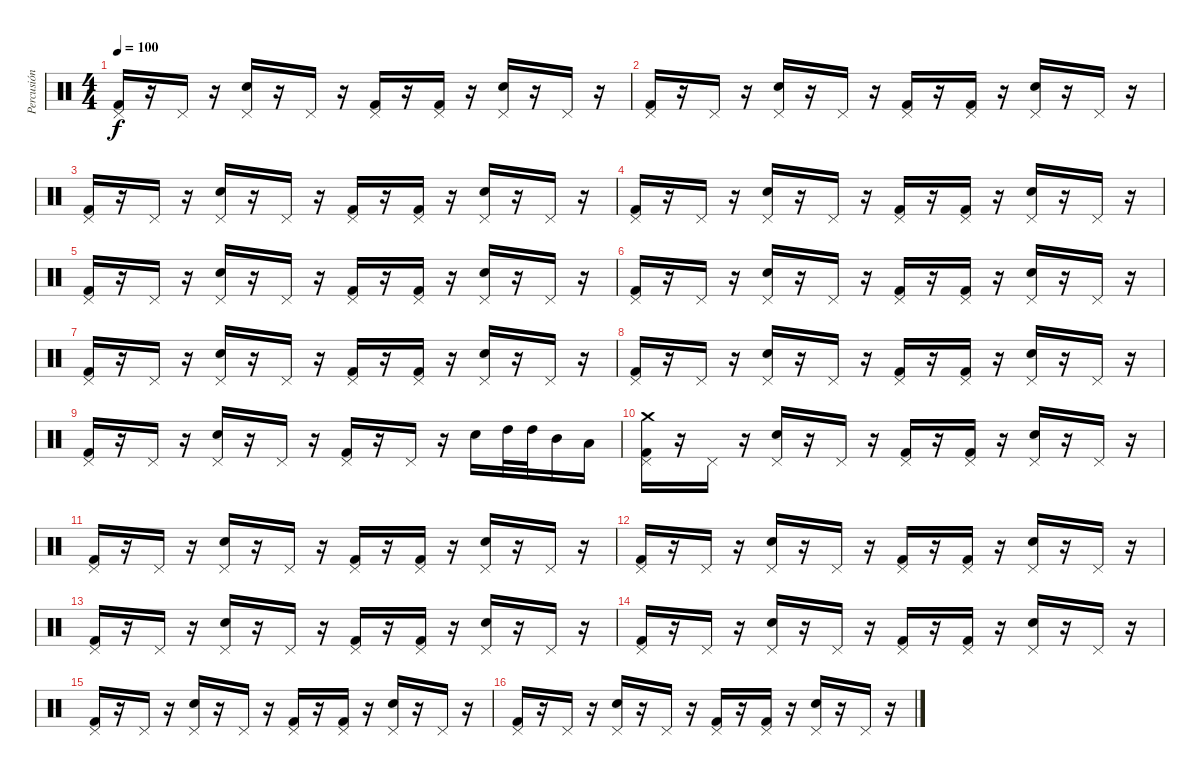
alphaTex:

\track ("Percusión" "Percusión") {instrument percussion}
\staff {score}
\articulation defaults
\ts (4 4)
\tempo 100
\clef neutral
\ks c
("Pedal Hi-Hat (hit)" "Kick (hit) 2").16{dy f} r.16 "Pedal Hi-Hat (hit)".16 r.16 ("Pedal Hi-Hat (hit)" "Snare (hit) 2").16 r.16 "Pedal Hi-Hat (hit)".16 r.16 ("Pedal Hi-Hat (hit)" "Kick (hit) 2").16 r.16 ("Pedal Hi-Hat (hit)" "Kick (hit) 2").16 r.16 ("Pedal Hi-Hat (hit)" "Snare (hit) 2").16 r.16 "Pedal Hi-Hat (hit)".16 r.16 |
("Pedal Hi-Hat (hit)" "Kick (hit) 2").16 r.16 "Pedal Hi-Hat (hit)".16 r.16 ("Pedal Hi-Hat (hit)" "Snare (hit) 2").16 r.16 "Pedal Hi-Hat (hit)".16 r.16 ("Pedal Hi-Hat (hit)" "Kick (hit) 2").16 r.16 ("Pedal Hi-Hat (hit)" "Kick (hit) 2").16 r.16 ("Pedal Hi-Hat (hit)" "Snare (hit) 2").16 r.16 "Pedal Hi-Hat (hit)".16 r.16 |
("Pedal Hi-Hat (hit)" "Kick (hit) 2").16 r.16 "Pedal Hi-Hat (hit)".16 r.16 ("Pedal Hi-Hat (hit)" "Snare (hit) 2").16 r.16 "Pedal Hi-Hat (hit)".16 r.16 ("Pedal Hi-Hat (hit)" "Kick (hit) 2").16 r.16 ("Pedal Hi-Hat (hit)" "Kick (hit) 2").16 r.16 ("Pedal Hi-Hat (hit)" "Snare (hit) 2").16 r.16 "Pedal Hi-Hat (hit)".16 r.16 |
("Pedal Hi-Hat (hit)" "Kick (hit) 2").16 r.16 "Pedal Hi-Hat (hit)".16 r.16 ("Pedal Hi-Hat (hit)" "Snare (hit) 2").16 r.16 "Pedal Hi-Hat (hit)".16 r.16 ("Pedal Hi-Hat (hit)" "Kick (hit) 2").16 r.16 ("Pedal Hi-Hat (hit)" "Kick (hit) 2").16 r.16 ("Pedal Hi-Hat (hit)" "Snare (hit) 2").16 r.16 "Pedal Hi-Hat (hit)".16 r.16 |
("Pedal Hi-Hat (hit)" "Kick (hit) 2").16 r.16 "Pedal Hi-Hat (hit)".16 r.16 ("Pedal Hi-Hat (hit)" "Snare (hit) 2").16 r.16 "Pedal Hi-Hat (hit)".16 r.16 ("Pedal Hi-Hat (hit)" "Kick (hit) 2").16 r.16 ("Pedal Hi-Hat (hit)" "Kick (hit) 2").16 r.16 ("Pedal Hi-Hat (hit)" "Snare (hit) 2").16 r.16 "Pedal Hi-Hat (hit)".16 r.16 |
("Pedal Hi-Hat (hit)" "Kick (hit) 2").16 r.16 "Pedal Hi-Hat (hit)".16 r.16 ("Pedal Hi-Hat (hit)" "Snare (hit) 2").16 r.16 "Pedal Hi-Hat (hit)".16 r.16 ("Pedal Hi-Hat (hit)" "Kick (hit) 2").16 r.16 ("Pedal Hi-Hat (hit)" "Kick (hit) 2").16 r.16 ("Pedal Hi-Hat (hit)" "Snare (hit) 2").16 r.16 "Pedal Hi-Hat (hit)".16 r.16 |
("Pedal Hi-Hat (hit)" "Kick (hit) 2").16 r.16 "Pedal Hi-Hat (hit)".16 r.16 ("Pedal Hi-Hat (hit)" "Snare (hit) 2").16 r.16 "Pedal Hi-Hat (hit)".16 r.16 ("Pedal Hi-Hat (hit)" "Kick (hit) 2").16 r.16 ("Pedal Hi-Hat (hit)" "Kick (hit) 2").16 r.16 ("Pedal Hi-Hat (hit)" "Snare (hit) 2").16 r.16 "Pedal Hi-Hat (hit)".16 r.16 |
("Pedal Hi-Hat (hit)" "Kick (hit) 2").16 r.16 "Pedal Hi-Hat (hit)".16 r.16 ("Pedal Hi-Hat (hit)" "Snare (hit) 2").16 r.16 "Pedal Hi-Hat (hit)".16 r.16 ("Pedal Hi-Hat (hit)" "Kick (hit) 2").16 r.16 ("Pedal Hi-Hat (hit)" "Kick (hit) 2").16 r.16 ("Pedal Hi-Hat (hit)" "Snare (hit) 2").16 r.16 "Pedal Hi-Hat (hit)".16 r.16 |
("Pedal Hi-Hat (hit)" "Kick (hit) 2").16 r.16 "Pedal Hi-Hat (hit)".16 r.16 ("Pedal Hi-Hat (hit)" "Snare (hit) 2").16 r.16 "Pedal Hi-Hat (hit)".16 r.16 ("Pedal Hi-Hat (hit)" "Kick (hit) 2").16 r.16 "Pedal Hi-Hat (hit)".16 r.16 "Snare (hit) 2".16 "High Tom (hit)".32 "High Tom (hit)".32 "Mid Tom (hit)".16 "Low Tom (hit)".16 |
("Crash medium (hit)" "Pedal Hi-Hat (hit)" "Kick (hit) 2").16 r.16 "Pedal Hi-Hat (hit)".16 r.16 ("Pedal Hi-Hat (hit)" "Snare (hit) 2").16 r.16 "Pedal Hi-Hat (hit)".16 r.16 ("Pedal Hi-Hat (hit)" "Kick (hit) 2").16 r.16 ("Pedal Hi-Hat (hit)" "Kick (hit) 2").16 r.16 ("Pedal Hi-Hat (hit)" "Snare (hit) 2").16 r.16 "Pedal Hi-Hat (hit)".16 r.16 |
("Pedal Hi-Hat (hit)" "Kick (hit) 2").16 r.16 "Pedal Hi-Hat (hit)".16 r.16 ("Pedal Hi-Hat (hit)" "Snare (hit) 2").16 r.16 "Pedal Hi-Hat (hit)".16 r.16 ("Pedal Hi-Hat (hit)" "Kick (hit) 2").16 r.16 ("Pedal Hi-Hat (hit)" "Kick (hit) 2").16 r.16 ("Pedal Hi-Hat (hit)" "Snare (hit) 2").16 r.16 "Pedal Hi-Hat (hit)".16 r.16 |
("Pedal Hi-Hat (hit)" "Kick (hit) 2").16 r.16 "Pedal Hi-Hat (hit)".16 r.16 ("Pedal Hi-Hat (hit)" "Snare (hit) 2").16 r.16 "Pedal Hi-Hat (hit)".16 r.16 ("Pedal Hi-Hat (hit)" "Kick (hit) 2").16 r.16 ("Pedal Hi-Hat (hit)" "Kick (hit) 2").16 r.16 ("Pedal Hi-Hat (hit)" "Snare (hit) 2").16 r.16 "Pedal Hi-Hat (hit)".16 r.16 |
("Pedal Hi-Hat (hit)" "Kick (hit) 2").16 r.16 "Pedal Hi-Hat (hit)".16 r.16 ("Pedal Hi-Hat (hit)" "Snare (hit) 2").16 r.16 "Pedal Hi-Hat (hit)".16 r.16 ("Pedal Hi-Hat (hit)" "Kick (hit) 2").16 r.16 ("Pedal Hi-Hat (hit)" "Kick (hit) 2").16 r.16 ("Pedal Hi-Hat (hit)" "Snare (hit) 2").16 r.16 "Pedal Hi-Hat (hit)".16 r.16 |
("Pedal Hi-Hat (hit)" "Kick (hit) 2").16 r.16 "Pedal Hi-Hat (hit)".16 r.16 ("Pedal Hi-Hat (hit)" "Snare (hit) 2").16 r.16 "Pedal Hi-Hat (hit)".16 r.16 ("Pedal Hi-Hat (hit)" "Kick (hit) 2").16 r.16 ("Pedal Hi-Hat (hit)" "Kick (hit) 2").16 r.16 ("Pedal Hi-Hat (hit)" "Snare (hit) 2").16 r.16 "Pedal Hi-Hat (hit)".16 r.16 |
("Pedal Hi-Hat (hit)" "Kick (hit) 2").16 r.16 "Pedal Hi-Hat (hit)".16 r.16 ("Pedal Hi-Hat (hit)" "Snare (hit) 2").16 r.16 "Pedal Hi-Hat (hit)".16 r.16 ("Pedal Hi-Hat (hit)" "Kick (hit) 2").16 r.16 ("Pedal Hi-Hat (hit)" "Kick (hit) 2").16 r.16 ("Pedal Hi-Hat (hit)" "Snare (hit) 2").16 r.16 "Pedal Hi-Hat (hit)".16 r.16 |
("Pedal Hi-Hat (hit)" "Kick (hit) 2").16 r.16 "Pedal Hi-Hat (hit)".16 r.16 ("Pedal Hi-Hat (hit)" "Snare (hit) 2").16 r.16 "Pedal Hi-Hat (hit)".16 r.16 ("Pedal Hi-Hat (hit)" "Kick (hit) 2").16 r.16 ("Pedal Hi-Hat (hit)" "Kick (hit) 2").16 r.16 ("Pedal Hi-Hat (hit)" "Snare (hit) 2").16 r.16 "Pedal Hi-Hat (hit)".16 r.16
